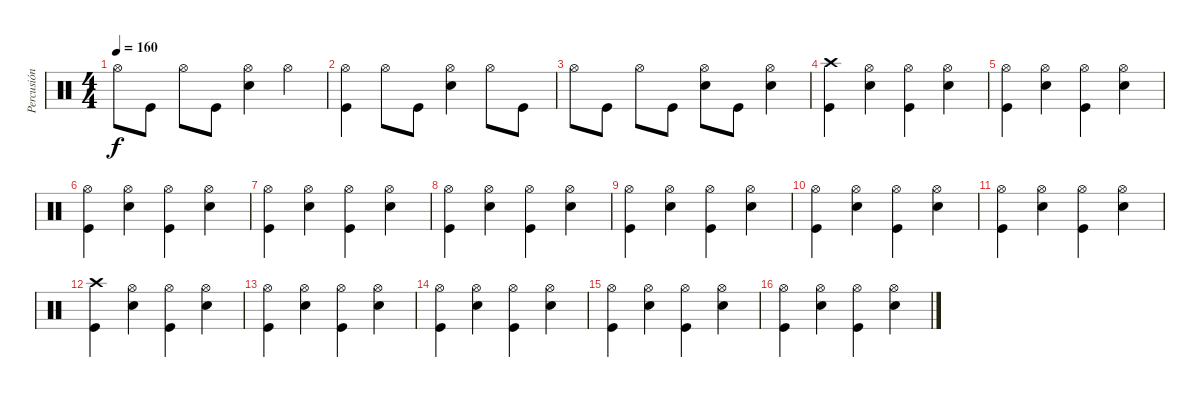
\track ("Percusión" "Percusión") {instrument percussion}
\staff {score}
\articulation defaults
\ts (4 4)
\tempo 160
\clef neutral
\ks c "Hi-Hat (open)".8{dy f} "Kick (hit)".8 "Hi-Hat (open)".8 "Kick (hit)".8
("Snare (hit) 2" "Hi-Hat (open)").4 "Hi-Hat (open)".4 |
("Kick (hit)" "Hi-Hat (open)").4 "Hi-Hat (open)".8 "Kick (hit)".8 ("Snare (hit) 2" "Hi-Hat (open)").4 "Hi-Hat (open)".8 "Kick (hit)".8 |
"Hi-Hat (open)".8 "Kick (hit)".8 "Hi-Hat (open)".8 "Kick (hit)".8 ("Snare (hit) 2" "Hi-Hat (open)").8 "Kick (hit)".8 ("Snare (hit) 2" "Hi-Hat (open)").4 |
("Kick (hit)" "Crash high (hit)").4 ("Snare (hit) 2" "Hi-Hat (open)").4 ("Kick (hit)" "Hi-Hat (open)").4 ("Snare (hit) 2" "Hi-Hat (open)").4 |
("Kick (hit)" "Hi-Hat (open)").4 ("Snare (hit) 2" "Hi-Hat (open)").4 ("Kick (hit)" "Hi-Hat (open)").4 ("Snare (hit) 2" "Hi-Hat (open)").4 |
("Kick (hit)" "Hi-Hat (open)").4 ("Snare (hit) 2" "Hi-Hat (open)").4 ("Kick (hit)" "Hi-Hat (open)").4 ("Snare (hit) 2" "Hi-Hat (open)").4 |
("Kick (hit)" "Hi-Hat (open)").4 ("Snare (hit) 2" "Hi-Hat (open)").4 ("Kick (hit)" "Hi-Hat (open)").4 ("Snare (hit) 2" "Hi-Hat (open)").4 |
("Kick (hit)" "Hi-Hat (open)").4 ("Snare (hit) 2" "Hi-Hat (open)").4 ("Kick (hit)" "Hi-Hat (open)").4 ("Snare (hit) 2" "Hi-Hat (open)").4 |
("Kick (hit)" "Hi-Hat (open)").4 ("Snare (hit) 2" "Hi-Hat (open)").4 ("Kick (hit)" "Hi-Hat (open)").4 ("Snare (hit) 2" "Hi-Hat (open)").4 |
("Kick (hit)" "Hi-Hat (open)").4 ("Snare (hit) 2" "Hi-Hat (open)").4 ("Kick (hit)" "Hi-Hat (open)").4 ("Snare (hit) 2" "Hi-Hat (open)").4 |
("Kick (hit)" "Hi-Hat (open)").4 ("Snare (hit) 2" "Hi-Hat (open)").4 ("Kick (hit)" "Hi-Hat (open)").4 ("Snare (hit) 2" "Hi-Hat (open)").4 |
("Kick (hit)" "Crash high (hit)").4 ("Snare (hit) 2" "Hi-Hat (open)").4 ("Kick (hit)" "Hi-Hat (open)").4 ("Snare (hit) 2" "Hi-Hat (open)").4 |
("Kick (hit)" "Hi-Hat (open)").4 ("Snare (hit) 2" "Hi-Hat (open)").4 ("Kick (hit)" "Hi-Hat (open)").4 ("Snare (hit) 2" "Hi-Hat (open)").4 |
("Kick (hit)" "Hi-Hat (open)").4 ("Snare (hit) 2" "Hi-Hat (open)").4 ("Kick (hit)" "Hi-Hat (open)").4 ("Snare (hit) 2" "Hi-Hat (open)").4 |
("Kick (hit)" "Hi-Hat (open)").4 ("Snare (hit) 2" "Hi-Hat (open)").4 ("Kick (hit)" "Hi-Hat (open)").4 ("Snare (hit) 2" "Hi-Hat (open)").4 |
("Kick (hit)" "Hi-Hat (open)").4 ("Snare (hit) 2" "Hi-Hat (open)").4 ("Kick (hit)" "Hi-Hat (open)").4 ("Snare (hit) 2" "Hi-Hat (open)").4
